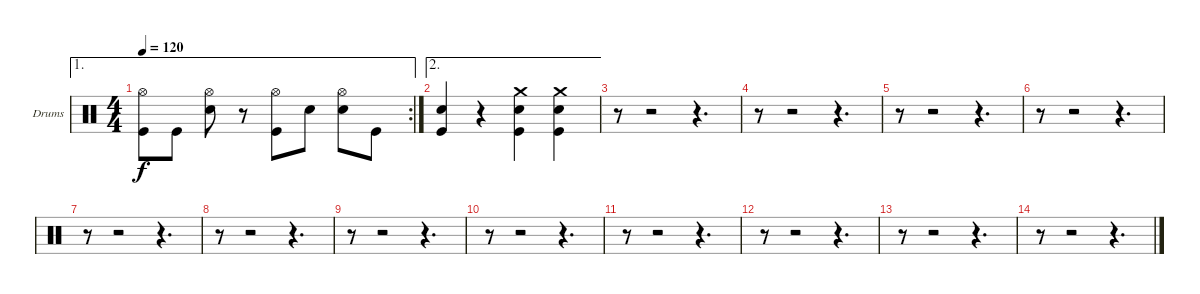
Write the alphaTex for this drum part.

\bracketExtendMode groupsimilarinstruments
\firstSystemTrackNameOrientation horizontal
\otherSystemsTrackNameOrientation horizontal
\track ("Drumkit" "Drums") {instrument percussion}
\staff {score}
\articulation defaults
\ae 1
\rc 2
\ts (4 4)
\tempo 120
\clef neutral
\ks c
("Hi-Hat (open)" "Kick (hit)").8{dy f} "Kick (hit)".8 ("Hi-Hat (open)" "Snare (hit) 2").8 r.8 ("Hi-Hat (open)" "Kick (hit)").8 "Snare (hit) 2".8 ("Hi-Hat (open)" "Snare (hit) 2").8 "Kick (hit)".8 |
\ae 2
("Snare (hit) 2" "Kick (hit)").4 r.4 ("Crash medium (hit)" "Snare (hit) 2" "Kick (hit)").4 ("Crash medium (hit)" "Snare (hit) 2" "Kick (hit)").4 |
r.8 r.2 r.4{d} |
r.8 r.2 r.4{d} |
r.8 r.2 r.4{d} |
r.8 r.2 r.4{d} |
r.8 r.2 r.4{d} |
r.8 r.2 r.4{d} |
r.8 r.2 r.4{d} |
r.8 r.2 r.4{d} |
r.8 r.2 r.4{d} |
r.8 r.2 r.4{d} |
r.8 r.2 r.4{d} |
r.8 r.2 r.4{d}
